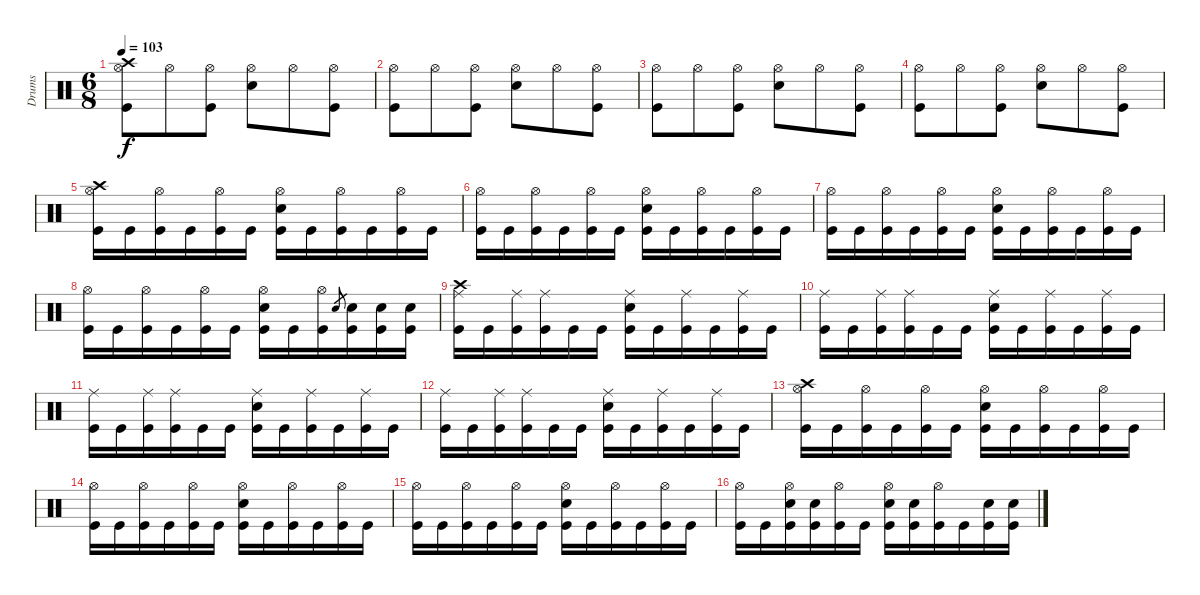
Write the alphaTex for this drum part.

\track ("Drums" "Drums") {instrument percussion}
\staff {score}
\articulation defaults
\ts (6 8)
\tempo 103
\clef neutral
\ks c
("Crash high (hit)" "Hi-Hat (open)" "Kick (hit)").8{dy f} "Hi-Hat (open)".8 ("Hi-Hat (open)" "Kick (hit)").8 ("Hi-Hat (open)" "Electric Snare (hit)").8 "Hi-Hat (open)".8 ("Hi-Hat (open)" "Kick (hit)").8 |
("Hi-Hat (open)" "Kick (hit)").8 "Hi-Hat (open)".8 ("Hi-Hat (open)" "Kick (hit)").8 ("Hi-Hat (open)" "Electric Snare (hit)").8 "Hi-Hat (open)".8 ("Hi-Hat (open)" "Kick (hit)").8 |
("Hi-Hat (open)" "Kick (hit)").8 "Hi-Hat (open)".8 ("Hi-Hat (open)" "Kick (hit)").8 ("Hi-Hat (open)" "Electric Snare (hit)").8 "Hi-Hat (open)".8 ("Hi-Hat (open)" "Kick (hit)").8 |
("Hi-Hat (open)" "Kick (hit)").8 "Hi-Hat (open)".8 ("Hi-Hat (open)" "Kick (hit)").8 ("Hi-Hat (open)" "Electric Snare (hit)").8 "Hi-Hat (open)".8 ("Hi-Hat (open)" "Kick (hit)").8 |
("Crash high (hit)" "Hi-Hat (open)" "Kick (hit)").16 "Kick (hit)".16 ("Hi-Hat (open)" "Kick (hit)").16 "Kick (hit)".16 ("Hi-Hat (open)" "Kick (hit)").16 "Kick (hit)".16 ("Hi-Hat (open)" "Electric Snare (hit)" "Kick (hit)").16 "Kick (hit)".16 ("Hi-Hat (open)" "Kick (hit)").16 "Kick (hit)".16 ("Hi-Hat (open)" "Kick (hit)").16 "Kick (hit)".16 |
("Hi-Hat (open)" "Kick (hit)").16 "Kick (hit)".16 ("Hi-Hat (open)" "Kick (hit)").16 "Kick (hit)".16 ("Hi-Hat (open)" "Kick (hit)").16 "Kick (hit)".16 ("Hi-Hat (open)" "Electric Snare (hit)" "Kick (hit)").16 "Kick (hit)".16 ("Hi-Hat (open)" "Kick (hit)").16 "Kick (hit)".16 ("Hi-Hat (open)" "Kick (hit)").16 "Kick (hit)".16 |
("Hi-Hat (open)" "Kick (hit)").16 "Kick (hit)".16 ("Hi-Hat (open)" "Kick (hit)").16 "Kick (hit)".16 ("Hi-Hat (open)" "Kick (hit)").16 "Kick (hit)".16 ("Hi-Hat (open)" "Electric Snare (hit)" "Kick (hit)").16 "Kick (hit)".16 ("Hi-Hat (open)" "Kick (hit)").16 "Kick (hit)".16 ("Hi-Hat (open)" "Kick (hit)").16 "Kick (hit)".16 |
("Hi-Hat (open)" "Kick (hit)").16 "Kick (hit)".16 ("Hi-Hat (open)" "Kick (hit)").16 "Kick (hit)".16 ("Hi-Hat (open)" "Kick (hit)").16 "Kick (hit)".16 ("Hi-Hat (open)" "Electric Snare (hit)" "Kick (hit)").16 "Kick (hit)".16 ("Hi-Hat (open)" "Kick (hit)").16 "Electric Snare (hit)".8{gr} ("Electric Snare (hit)" "Kick (hit)").16 ("Electric Snare (hit)" "Kick (hit)").16 ("Electric Snare (hit)" "Kick (hit)").16 |
("Crash high (hit)" "Ride (middle)" "Kick (hit)").16 "Kick (hit)".16 ("Ride (middle)" "Kick (hit)").16 ("Ride (middle)" "Kick (hit)").16 "Kick (hit)".16 "Kick (hit)".16 ("Ride (middle)" "Electric Snare (hit)" "Kick (hit)").16 "Kick (hit)".16 ("Ride (middle)" "Kick (hit)").16 "Kick (hit)".16 ("Ride (middle)" "Kick (hit)").16 "Kick (hit)".16 |
("Ride (middle)" "Kick (hit)").16 "Kick (hit)".16 ("Ride (middle)" "Kick (hit)").16 ("Ride (middle)" "Kick (hit)").16 "Kick (hit)".16 "Kick (hit)".16 ("Ride (middle)" "Electric Snare (hit)" "Kick (hit)").16 "Kick (hit)".16 ("Ride (middle)" "Kick (hit)").16 "Kick (hit)".16 ("Ride (middle)" "Kick (hit)").16 "Kick (hit)".16 |
("Ride (middle)" "Kick (hit)").16 "Kick (hit)".16 ("Ride (middle)" "Kick (hit)").16 ("Ride (middle)" "Kick (hit)").16 "Kick (hit)".16 "Kick (hit)".16 ("Ride (middle)" "Electric Snare (hit)" "Kick (hit)").16 "Kick (hit)".16 ("Ride (middle)" "Kick (hit)").16 "Kick (hit)".16 ("Ride (middle)" "Kick (hit)").16 "Kick (hit)".16 |
("Ride (middle)" "Kick (hit)").16 "Kick (hit)".16 ("Ride (middle)" "Kick (hit)").16 ("Ride (middle)" "Kick (hit)").16 "Kick (hit)".16 "Kick (hit)".16 ("Ride (middle)" "Electric Snare (hit)" "Kick (hit)").16 "Kick (hit)".16 ("Ride (middle)" "Kick (hit)").16 "Kick (hit)".16 ("Ride (middle)" "Kick (hit)").16 "Kick (hit)".16 |
("Crash high (hit)" "Hi-Hat (open)" "Kick (hit)").16 "Kick (hit)".16 ("Hi-Hat (open)" "Kick (hit)").16 "Kick (hit)".16 ("Hi-Hat (open)" "Kick (hit)").16 "Kick (hit)".16 ("Hi-Hat (open)" "Electric Snare (hit)" "Kick (hit)").16 "Kick (hit)".16 ("Hi-Hat (open)" "Kick (hit)").16 "Kick (hit)".16 ("Hi-Hat (open)" "Kick (hit)").16 "Kick (hit)".16 |
("Hi-Hat (open)" "Kick (hit)").16 "Kick (hit)".16 ("Hi-Hat (open)" "Kick (hit)").16 "Kick (hit)".16 ("Hi-Hat (open)" "Kick (hit)").16 "Kick (hit)".16 ("Hi-Hat (open)" "Electric Snare (hit)" "Kick (hit)").16 "Kick (hit)".16 ("Hi-Hat (open)" "Kick (hit)").16 "Kick (hit)".16 ("Hi-Hat (open)" "Kick (hit)").16 "Kick (hit)".16 |
("Hi-Hat (open)" "Kick (hit)").16 "Kick (hit)".16 ("Hi-Hat (open)" "Kick (hit)").16 "Kick (hit)".16 ("Hi-Hat (open)" "Kick (hit)").16 "Kick (hit)".16 ("Hi-Hat (open)" "Electric Snare (hit)" "Kick (hit)").16 "Kick (hit)".16 ("Hi-Hat (open)" "Kick (hit)").16 "Kick (hit)".16 ("Hi-Hat (open)" "Kick (hit)").16 "Kick (hit)".16 |
("Hi-Hat (open)" "Kick (hit)").16 "Kick (hit)".16 ("Hi-Hat (open)" "Electric Snare (hit)" "Kick (hit)").16 ("Electric Snare (hit)" "Kick (hit)").16 ("Hi-Hat (open)" "Kick (hit)").16 "Kick (hit)".16 ("Hi-Hat (open)" "Electric Snare (hit)" "Kick (hit)").16 ("Electric Snare (hit)" "Kick (hit)").16 ("Hi-Hat (open)" "Kick (hit)").16 "Kick (hit)".16 ("Electric Snare (hit)" "Kick (hit)").16 ("Electric Snare (hit)" "Kick (hit)").16
